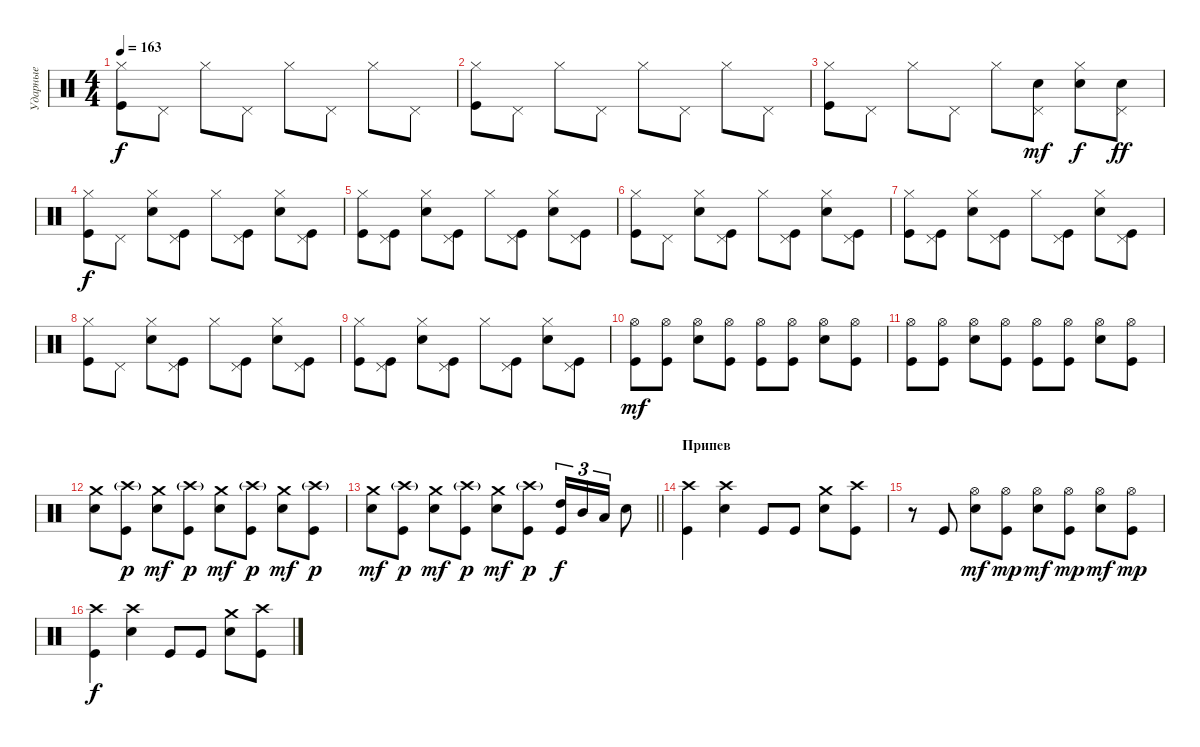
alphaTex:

\track ("Ударные" "Ударные") {instrument percussion}
\staff
\articulation defaults
\ts (4 4)
\tempo 163
\clef neutral
\ks c
("Hi-Hat (closed)" "Kick (hit)").8{dy f} "Pedal Hi-Hat (hit)".8 "Hi-Hat (closed)".8 "Pedal Hi-Hat (hit)".8 "Hi-Hat (closed)".8 "Pedal Hi-Hat (hit)".8 "Hi-Hat (closed)".8 "Pedal Hi-Hat (hit)".8 |
("Hi-Hat (closed)" "Kick (hit)").8 "Pedal Hi-Hat (hit)".8 "Hi-Hat (closed)".8 "Pedal Hi-Hat (hit)".8 "Hi-Hat (closed)".8 "Pedal Hi-Hat (hit)".8 "Hi-Hat (closed)".8 "Pedal Hi-Hat (hit)".8 |
("Hi-Hat (closed)" "Kick (hit)").8 "Pedal Hi-Hat (hit)".8 "Hi-Hat (closed)".8 "Pedal Hi-Hat (hit)".8 "Hi-Hat (closed)".8 ("Pedal Hi-Hat (hit)" "Snare (hit) 2").8{dy mf} ("Hi-Hat (closed)" "Snare (hit) 2").8{dy f} ("Pedal Hi-Hat (hit)" "Snare (hit) 2").8{dy ff} |
("Hi-Hat (closed)" "Kick (hit)").8{dy f} "Pedal Hi-Hat (hit)".8 ("Hi-Hat (closed)" "Snare (hit) 2").8 ("Pedal Hi-Hat (hit)" "Kick (hit)").8 "Hi-Hat (closed)".8 ("Pedal Hi-Hat (hit)" "Kick (hit)").8 ("Hi-Hat (closed)" "Snare (hit) 2").8 ("Pedal Hi-Hat (hit)" "Kick (hit)").8 |
("Hi-Hat (closed)" "Kick (hit)").8 ("Pedal Hi-Hat (hit)" "Kick (hit)").8 ("Hi-Hat (closed)" "Snare (hit) 2").8 ("Pedal Hi-Hat (hit)" "Kick (hit)").8 "Hi-Hat (closed)".8 ("Pedal Hi-Hat (hit)" "Kick (hit)").8 ("Hi-Hat (closed)" "Snare (hit) 2").8 ("Pedal Hi-Hat (hit)" "Kick (hit)").8 |
("Hi-Hat (closed)" "Kick (hit)").8 "Pedal Hi-Hat (hit)".8 ("Hi-Hat (closed)" "Snare (hit) 2").8 ("Pedal Hi-Hat (hit)" "Kick (hit)").8 "Hi-Hat (closed)".8 ("Pedal Hi-Hat (hit)" "Kick (hit)").8 ("Hi-Hat (closed)" "Snare (hit) 2").8 ("Pedal Hi-Hat (hit)" "Kick (hit)").8 |
("Hi-Hat (closed)" "Kick (hit)").8 ("Pedal Hi-Hat (hit)" "Kick (hit)").8 ("Hi-Hat (closed)" "Snare (hit) 2").8 ("Pedal Hi-Hat (hit)" "Kick (hit)").8 "Hi-Hat (closed)".8 ("Pedal Hi-Hat (hit)" "Kick (hit)").8 ("Hi-Hat (closed)" "Snare (hit) 2").8 ("Pedal Hi-Hat (hit)" "Kick (hit)").8 |
("Hi-Hat (closed)" "Kick (hit)").8 "Pedal Hi-Hat (hit)".8 ("Hi-Hat (closed)" "Snare (hit) 2").8 ("Pedal Hi-Hat (hit)" "Kick (hit)").8 "Hi-Hat (closed)".8 ("Pedal Hi-Hat (hit)" "Kick (hit)").8 ("Hi-Hat (closed)" "Snare (hit) 2").8 ("Pedal Hi-Hat (hit)" "Kick (hit)").8 |
("Hi-Hat (closed)" "Kick (hit)").8 ("Pedal Hi-Hat (hit)" "Kick (hit)").8 ("Hi-Hat (closed)" "Snare (hit) 2").8 ("Pedal Hi-Hat (hit)" "Kick (hit)").8 "Hi-Hat (closed)".8 ("Pedal Hi-Hat (hit)" "Kick (hit)").8 ("Hi-Hat (closed)" "Snare (hit) 2").8 ("Pedal Hi-Hat (hit)" "Kick (hit)").8 |
("Hi-Hat (open)" "Kick (hit)").8{dy mf} ("Hi-Hat (open)" "Kick (hit)").8 ("Hi-Hat (open)" "Snare (hit) 2").8 ("Hi-Hat (open)" "Kick (hit)").8 ("Hi-Hat (open)" "Kick (hit)").8 ("Hi-Hat (open)" "Kick (hit)").8 ("Hi-Hat (open)" "Snare (hit) 2").8 ("Hi-Hat (open)" "Kick (hit)").8 |
("Hi-Hat (open)" "Kick (hit)").8 ("Hi-Hat (open)" "Kick (hit)").8 ("Hi-Hat (open)" "Snare (hit) 2").8 ("Hi-Hat (open)" "Kick (hit)").8 ("Hi-Hat (open)" "Kick (hit)").8 ("Hi-Hat (open)" "Kick (hit)").8 ("Hi-Hat (open)" "Snare (hit) 2").8 ("Hi-Hat (open)" "Kick (hit)").8 |
("Crash medium (hit)" "Snare (hit) 2").8 ("Crash high (hit)"{g} "Kick (hit)").8{dy p} ("Crash medium (hit)" "Snare (hit) 2").8{dy mf} ("Crash high (hit)"{g} "Kick (hit)").8{dy p} ("Crash medium (hit)" "Snare (hit) 2").8{dy mf} ("Crash high (hit)"{g} "Kick (hit)").8{dy p} ("Crash medium (hit)" "Snare (hit) 2").8{dy mf} ("Crash high (hit)"{g} "Kick (hit)").8{dy p} |
\barLineRight lightlight
("Crash medium (hit)" "Snare (hit) 2").8{dy mf} ("Crash high (hit)"{g} "Kick (hit)").8{dy p} ("Crash medium (hit)" "Snare (hit) 2").8{dy mf} ("Crash high (hit)"{g} "Kick (hit)").8{dy p} ("Crash medium (hit)" "Snare (hit) 2").8{dy mf} ("Crash high (hit)"{g} "Kick (hit)").8{dy p} ("High Tom (hit)" "Kick (hit)").16{tu (3 2) dy f} "Mid Tom (hit)".16{tu (3 2)} "Low Tom (hit)".16{tu (3 2)} "Snare (hit) 2".8 |
\section ("" "Припев")
("Crash high (hit)" "Kick (hit)").4 ("Crash high (hit)" "Snare (hit) 2").4 "Kick (hit)".8 "Kick (hit)".8 ("Crash medium (hit)" "Snare (hit) 2").8 ("Crash high (hit)" "Kick (hit)").8 |
r.8 "Kick (hit)".8 ("Hi-Hat (open)" "Snare (hit) 2").8{dy mf} ("Hi-Hat (open)" "Kick (hit)").8{dy mp} ("Hi-Hat (open)" "Snare (hit) 2").8{dy mf} ("Hi-Hat (open)" "Kick (hit)").8{dy mp} ("Hi-Hat (open)" "Snare (hit) 2").8{dy mf} ("Hi-Hat (open)" "Kick (hit)").8{dy mp} |
("Crash high (hit)" "Kick (hit)").4{dy f} ("Crash high (hit)" "Snare (hit) 2").4 "Kick (hit)".8 "Kick (hit)".8 ("Crash medium (hit)" "Snare (hit) 2").8 ("Crash high (hit)" "Kick (hit)").8
